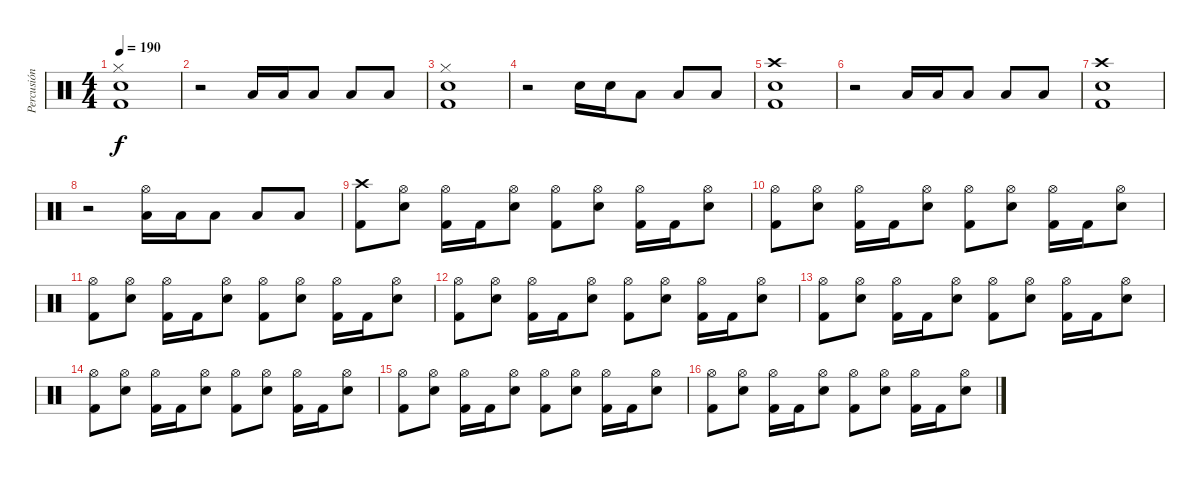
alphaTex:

\track ("Percusión" "Percusión") {instrument percussion}
\staff {score}
\articulation defaults
\ts (4 4)
\tempo 190
\clef neutral
\ks c
("Kick (hit) 2" "Snare (hit) 2" "Hi-Hat (closed)").1{dy f} |
r.2 "Low Tom (hit)".16 "Low Tom (hit)".16 "Low Tom (hit)".8 "Low Tom (hit)".8 "Low Tom (hit)".8 |
("Kick (hit) 2" "Snare (hit) 2" "Hi-Hat (closed)").1 |
r.2 "Snare (hit) 2".16 "Snare (hit) 2".16 "Low Tom (hit)".8 "Low Tom (hit)".8 "Low Tom (hit)".8 |
("Kick (hit) 2" "Snare (hit) 2" "Crash high (hit)").1 |
r.2 "Low Tom (hit)".16 "Low Tom (hit)".16 "Low Tom (hit)".8 "Low Tom (hit)".8 "Low Tom (hit)".8 |
("Kick (hit) 2" "Snare (hit) 2" "Crash high (hit)").1 |
r.2 ("Low Tom (hit)" "Hi-Hat (open)").16 "Low Tom (hit)".16 "Low Tom (hit)".8 "Low Tom (hit)".8 "Low Tom (hit)".8 |
("Kick (hit) 2" "Crash high (hit)").8 ("Snare (hit) 2" "Hi-Hat (open)").8 ("Kick (hit) 2" "Hi-Hat (open)").16 "Kick (hit) 2".16 ("Snare (hit) 2" "Hi-Hat (open)").8 ("Kick (hit) 2" "Hi-Hat (open)").8 ("Snare (hit) 2" "Hi-Hat (open)").8 ("Kick (hit) 2" "Hi-Hat (open)").16 "Kick (hit) 2".16 ("Snare (hit) 2" "Hi-Hat (open)").8 |
("Kick (hit) 2" "Hi-Hat (open)").8 ("Snare (hit) 2" "Hi-Hat (open)").8 ("Kick (hit) 2" "Hi-Hat (open)").16 "Kick (hit) 2".16 ("Snare (hit) 2" "Hi-Hat (open)").8 ("Kick (hit) 2" "Hi-Hat (open)").8 ("Snare (hit) 2" "Hi-Hat (open)").8 ("Kick (hit) 2" "Hi-Hat (open)").16 "Kick (hit) 2".16 ("Snare (hit) 2" "Hi-Hat (open)").8 |
("Kick (hit) 2" "Hi-Hat (open)").8 ("Snare (hit) 2" "Hi-Hat (open)").8 ("Kick (hit) 2" "Hi-Hat (open)").16 "Kick (hit) 2".16 ("Snare (hit) 2" "Hi-Hat (open)").8 ("Kick (hit) 2" "Hi-Hat (open)").8 ("Snare (hit) 2" "Hi-Hat (open)").8 ("Kick (hit) 2" "Hi-Hat (open)").16 "Kick (hit) 2".16 ("Snare (hit) 2" "Hi-Hat (open)").8 |
("Kick (hit) 2" "Hi-Hat (open)").8 ("Snare (hit) 2" "Hi-Hat (open)").8 ("Kick (hit) 2" "Hi-Hat (open)").16 "Kick (hit) 2".16 ("Snare (hit) 2" "Hi-Hat (open)").8 ("Kick (hit) 2" "Hi-Hat (open)").8 ("Snare (hit) 2" "Hi-Hat (open)").8 ("Kick (hit) 2" "Hi-Hat (open)").16 "Kick (hit) 2".16 ("Snare (hit) 2" "Hi-Hat (open)").8 |
("Kick (hit) 2" "Hi-Hat (open)").8 ("Snare (hit) 2" "Hi-Hat (open)").8 ("Kick (hit) 2" "Hi-Hat (open)").16 "Kick (hit) 2".16 ("Snare (hit) 2" "Hi-Hat (open)").8 ("Kick (hit) 2" "Hi-Hat (open)").8 ("Snare (hit) 2" "Hi-Hat (open)").8 ("Kick (hit) 2" "Hi-Hat (open)").16 "Kick (hit) 2".16 ("Snare (hit) 2" "Hi-Hat (open)").8 |
("Kick (hit) 2" "Hi-Hat (open)").8 ("Snare (hit) 2" "Hi-Hat (open)").8 ("Kick (hit) 2" "Hi-Hat (open)").16 "Kick (hit) 2".16 ("Snare (hit) 2" "Hi-Hat (open)").8 ("Kick (hit) 2" "Hi-Hat (open)").8 ("Snare (hit) 2" "Hi-Hat (open)").8 ("Kick (hit) 2" "Hi-Hat (open)").16 "Kick (hit) 2".16 ("Snare (hit) 2" "Hi-Hat (open)").8 |
("Kick (hit) 2" "Hi-Hat (open)").8 ("Snare (hit) 2" "Hi-Hat (open)").8 ("Kick (hit) 2" "Hi-Hat (open)").16 "Kick (hit) 2".16 ("Snare (hit) 2" "Hi-Hat (open)").8 ("Kick (hit) 2" "Hi-Hat (open)").8 ("Snare (hit) 2" "Hi-Hat (open)").8 ("Kick (hit) 2" "Hi-Hat (open)").16 "Kick (hit) 2".16 ("Snare (hit) 2" "Hi-Hat (open)").8 |
("Kick (hit) 2" "Hi-Hat (open)").8 ("Snare (hit) 2" "Hi-Hat (open)").8 ("Kick (hit) 2" "Hi-Hat (open)").16 "Kick (hit) 2".16 ("Snare (hit) 2" "Hi-Hat (open)").8 ("Kick (hit) 2" "Hi-Hat (open)").8 ("Snare (hit) 2" "Hi-Hat (open)").8 ("Kick (hit) 2" "Hi-Hat (open)").16 "Kick (hit) 2".16 ("Snare (hit) 2" "Hi-Hat (open)").8
